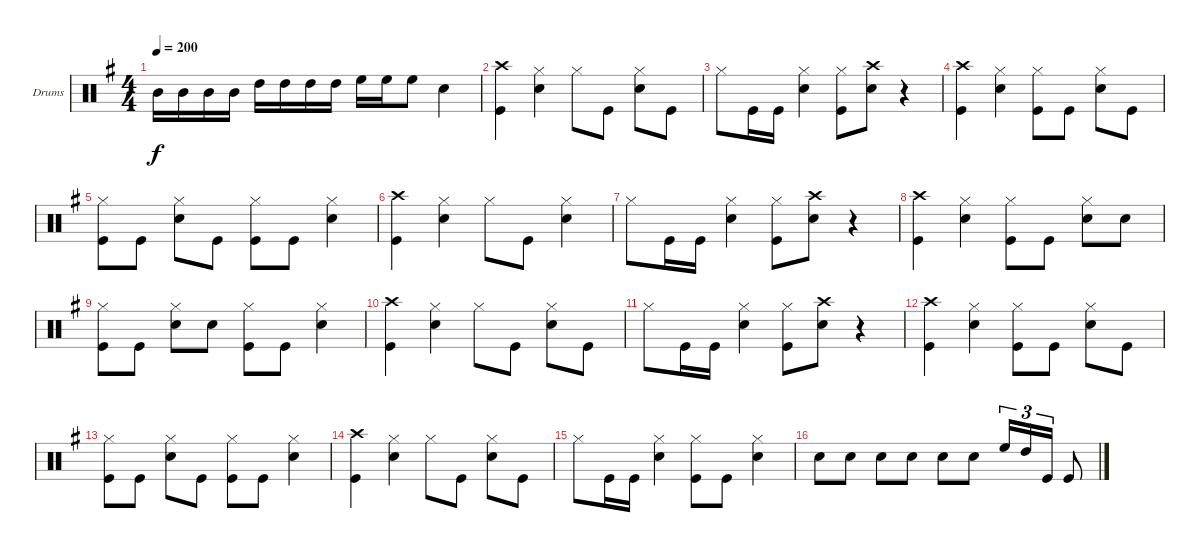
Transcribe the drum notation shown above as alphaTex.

\bracketExtendMode groupsimilarinstruments
\firstSystemTrackNameOrientation horizontal
\otherSystemsTrackNameOrientation horizontal
\track ("Drumkit" "Drums") {instrument percussion}
\staff {score}
\articulation defaults
\ts (4 4)
\tempo 200
\clef neutral
\ks g "Mid Tom (hit)".16{dy f} "Mid Tom (hit)".16 "Mid Tom (hit)".16 "Mid Tom (hit)".16 "High Tom (hit)".16 "High Tom (hit)".16 "High Tom (hit)".16 "High Tom (hit)".16 "High Floor Tom (hit)".16 "High Floor Tom (hit)".16 "High Floor Tom (hit)".8 "Snare (hit) 2".4
|
("Kick (hit)" "Crash high (hit)").4 ("Hi-Hat (closed)" "Snare (hit) 2").4 "Hi-Hat (closed)".8 "Kick (hit)".8 ("Snare (hit) 2" "Hi-Hat (closed)").8 "Kick (hit)".8 |
"Hi-Hat (closed)".8 "Kick (hit)".16 "Kick (hit)".16 ("Snare (hit) 2" "Hi-Hat (closed)").4 ("Hi-Hat (closed)" "Kick (hit)").8 ("Crash high (hit)" "Snare (hit) 2").8 r.4 |
("Kick (hit)" "Crash high (hit)").4 ("Hi-Hat (closed)" "Snare (hit) 2").4 ("Hi-Hat (closed)" "Kick (hit)").8 "Kick (hit)".8 ("Snare (hit) 2" "Hi-Hat (closed)").8 "Kick (hit)".8 |
("Hi-Hat (closed)" "Kick (hit)").8 "Kick (hit)".8 ("Snare (hit) 2" "Hi-Hat (closed)").8 "Kick (hit)".8 ("Hi-Hat (closed)" "Kick (hit)").8 "Kick (hit)".8 ("Snare (hit) 2" "Hi-Hat (closed)").4 |
("Kick (hit)" "Crash high (hit)").4 ("Hi-Hat (closed)" "Snare (hit) 2").4 "Hi-Hat (closed)".8 "Kick (hit)".8 ("Snare (hit) 2" "Hi-Hat (closed)").4 |
"Hi-Hat (closed)".8 "Kick (hit)".16 "Kick (hit)".16 ("Snare (hit) 2" "Hi-Hat (closed)").4 ("Hi-Hat (closed)" "Kick (hit)").8 ("Crash high (hit)" "Snare (hit) 2").8 r.4 |
("Crash high (hit)" "Kick (hit)").4 ("Snare (hit) 2" "Hi-Hat (closed)").4 ("Hi-Hat (closed)" "Kick (hit)").8 "Kick (hit)".8 ("Hi-Hat (closed)" "Snare (hit) 2").8 "Snare (hit) 2".8 |
("Kick (hit)" "Hi-Hat (closed)").8 "Kick (hit)".8 ("Snare (hit) 2" "Hi-Hat (closed)").8 "Snare (hit) 2".8 ("Kick (hit)" "Hi-Hat (closed)").8 "Kick (hit)".8 ("Snare (hit) 2" "Hi-Hat (closed)").4 |
("Kick (hit)" "Crash high (hit)").4 ("Hi-Hat (closed)" "Snare (hit) 2").4 "Hi-Hat (closed)".8 "Kick (hit)".8 ("Snare (hit) 2" "Hi-Hat (closed)").8 "Kick (hit)".8 |
"Hi-Hat (closed)".8 "Kick (hit)".16 "Kick (hit)".16 ("Snare (hit) 2" "Hi-Hat (closed)").4 ("Kick (hit)" "Hi-Hat (closed)").8 ("Crash high (hit)" "Snare (hit) 2").8 r.4 |
("Kick (hit)" "Crash high (hit)").4 ("Hi-Hat (closed)" "Snare (hit) 2").4 ("Kick (hit)" "Hi-Hat (closed)").8 "Kick (hit)".8 ("Snare (hit) 2" "Hi-Hat (closed)").8 "Kick (hit)".8 |
("Hi-Hat (closed)" "Kick (hit)").8 "Kick (hit)".8 ("Snare (hit) 2" "Hi-Hat (closed)").8 "Kick (hit)".8 ("Hi-Hat (closed)" "Kick (hit)").8 "Kick (hit)".8 ("Snare (hit) 2" "Hi-Hat (closed)").4 |
("Kick (hit)" "Crash high (hit)").4 ("Hi-Hat (closed)" "Snare (hit) 2").4 "Hi-Hat (closed)".8 "Kick (hit)".8 ("Snare (hit) 2" "Hi-Hat (closed)").8 "Kick (hit)".8 |
"Hi-Hat (closed)".8 "Kick (hit)".16 "Kick (hit)".16 ("Snare (hit) 2" "Hi-Hat (closed)").4 ("Kick (hit)" "Hi-Hat (closed)").8 "Kick (hit)".8 ("Snare (hit) 2" "Hi-Hat (closed)").4 |
"Snare (hit) 2".8 "Snare (hit) 2".8 "Snare (hit) 2".8 "Snare (hit) 2".8 "Snare (hit) 2".8 "Snare (hit) 2".8 "High Floor Tom (hit)".16{tu (3 2)} "High Tom (hit)".16{tu (3 2)} "Kick (hit)".16{tu (3 2)} "Kick (hit)".8
